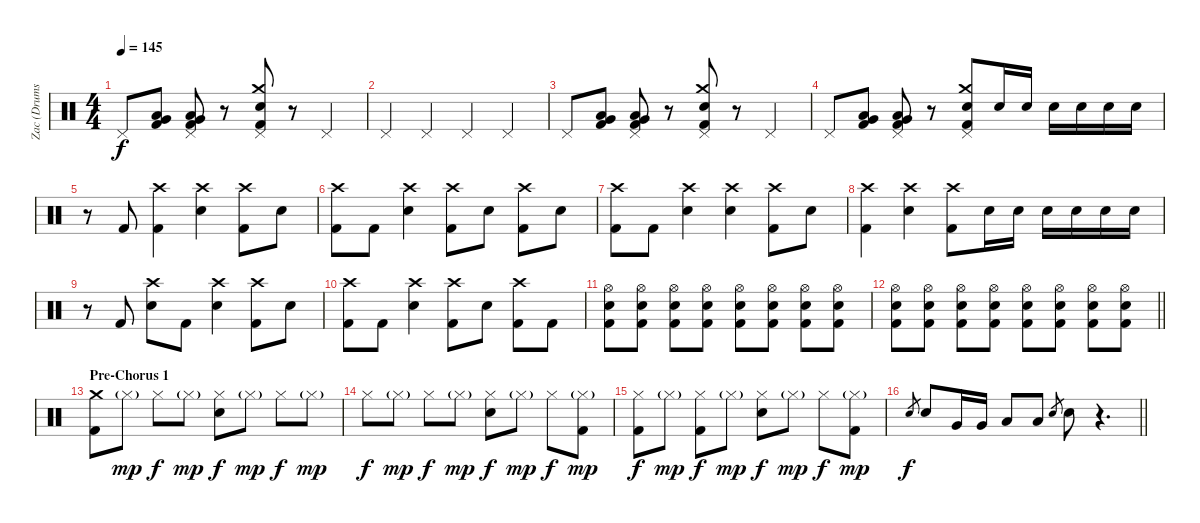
\track ("Zac (Drums)" "Zac (Drums") {instrument percussion}
\staff {score}
\articulation defaults
\ts (4 4)
\tempo 145
\clef neutral
\ks c "Pedal Hi-Hat (hit)".8{dy f}
("Very Low Tom (hit)" "Low Tom (hit)" "Kick (hit) 2").8 ("Pedal Hi-Hat (hit)" "Very Low Tom (hit)" "Low Tom (hit)" "Kick (hit) 2").8 r.8 ("Crash medium (hit)" "Pedal Hi-Hat (hit)" "Electric Snare (hit)" "Kick (hit) 2").8 r.8 "Pedal Hi-Hat (hit)".4 |
"Pedal Hi-Hat (hit)".4 "Pedal Hi-Hat (hit)".4 "Pedal Hi-Hat (hit)".4 "Pedal Hi-Hat (hit)".4 |
"Pedal Hi-Hat (hit)".8 ("Very Low Tom (hit)" "Low Tom (hit)" "Kick (hit) 2").8 ("Pedal Hi-Hat (hit)" "Very Low Tom (hit)" "Low Tom (hit)" "Kick (hit) 2").8 r.8 ("Crash medium (hit)" "Pedal Hi-Hat (hit)" "Electric Snare (hit)" "Kick (hit) 2").8 r.8 "Pedal Hi-Hat (hit)".4 |
"Pedal Hi-Hat (hit)".8 ("Very Low Tom (hit)" "Low Tom (hit)" "Kick (hit) 2").8 ("Pedal Hi-Hat (hit)" "Very Low Tom (hit)" "Low Tom (hit)" "Kick (hit) 2").8 r.8 ("Crash medium (hit)" "Pedal Hi-Hat (hit)" "Electric Snare (hit)" "Kick (hit) 2").8 "Electric Snare (hit)".16 "Electric Snare (hit)".16 "Electric Snare (hit)".16 "Electric Snare (hit)".16 "Electric Snare (hit)".16 "Electric Snare (hit)".16 |
r.8 "Kick (hit) 2".8 ("Crash high (hit)" "Kick (hit) 2").4 ("Crash high (hit)" "Electric Snare (hit)").4 ("Crash high (hit)" "Kick (hit) 2").8 "Electric Snare (hit)".8 |
("Crash high (hit)" "Kick (hit) 2").8 "Kick (hit) 2".8 ("Crash high (hit)" "Electric Snare (hit)").4 ("Crash high (hit)" "Kick (hit) 2").8 "Electric Snare (hit)".8 ("Crash high (hit)" "Kick (hit) 2").8 "Electric Snare (hit)".8 |
("Crash high (hit)" "Kick (hit) 2").8 "Kick (hit) 2".8 ("Crash high (hit)" "Electric Snare (hit)").4 ("Crash high (hit)" "Electric Snare (hit)").4 ("Crash high (hit)" "Kick (hit) 2").8 "Electric Snare (hit)".8 |
("Crash high (hit)" "Kick (hit) 2").4 ("Crash high (hit)" "Electric Snare (hit)").4 ("Crash high (hit)" "Kick (hit) 2").8 "Electric Snare (hit)".16 "Electric Snare (hit)".16 "Electric Snare (hit)".16 "Electric Snare (hit)".16 "Electric Snare (hit)".16 "Electric Snare (hit)".16 |
r.8 "Kick (hit) 2".8 ("Crash high (hit)" "Electric Snare (hit)").8 "Kick (hit) 2".8 ("Crash high (hit)" "Electric Snare (hit)").4 ("Crash high (hit)" "Kick (hit) 2").8 "Electric Snare (hit)".8 |
("Crash high (hit)" "Kick (hit) 2").8 "Kick (hit) 2".8 ("Crash high (hit)" "Electric Snare (hit)").4 ("Crash high (hit)" "Kick (hit) 2").8 "Electric Snare (hit)".8 ("Crash high (hit)" "Kick (hit) 2").8 "Kick (hit) 2".8 |
("Hi-Hat (open)" "Electric Snare (hit)" "Kick (hit) 2").8 ("Hi-Hat (open)" "Electric Snare (hit)" "Kick (hit) 2").8 ("Hi-Hat (open)" "Electric Snare (hit)" "Kick (hit) 2").8 ("Hi-Hat (open)" "Electric Snare (hit)" "Kick (hit) 2").8 ("Hi-Hat (open)" "Electric Snare (hit)" "Kick (hit) 2").8 ("Hi-Hat (open)" "Electric Snare (hit)" "Kick (hit) 2").8 ("Hi-Hat (open)" "Electric Snare (hit)" "Kick (hit) 2").8 ("Hi-Hat (open)" "Electric Snare (hit)" "Kick (hit) 2").8 |
\barLineRight lightlight
("Hi-Hat (open)" "Electric Snare (hit)" "Kick (hit) 2").8 ("Hi-Hat (open)" "Electric Snare (hit)" "Kick (hit) 2").8 ("Hi-Hat (open)" "Electric Snare (hit)" "Kick (hit) 2").8 ("Hi-Hat (open)" "Electric Snare (hit)" "Kick (hit) 2").8 ("Hi-Hat (open)" "Electric Snare (hit)" "Kick (hit) 2").8 ("Hi-Hat (open)" "Electric Snare (hit)" "Kick (hit) 2").8 ("Hi-Hat (open)" "Electric Snare (hit)" "Kick (hit) 2").8 ("Hi-Hat (open)" "Electric Snare (hit)" "Kick (hit) 2").8 |
\section ("" "Pre-Chorus 1")
("Crash medium (hit)" "Kick (hit) 2").8 "Hi-Hat (closed)"{g}.8{dy mp} "Hi-Hat (closed)".8{dy f} "Hi-Hat (closed)"{g}.8{dy mp} ("Hi-Hat (closed)" "Electric Snare (hit)").8{dy f} "Hi-Hat (closed)"{g}.8{dy mp} "Hi-Hat (closed)".8{dy f} "Hi-Hat (closed)"{g}.8{dy mp} |
"Hi-Hat (closed)".8{dy f} "Hi-Hat (closed)"{g}.8{dy mp} "Hi-Hat (closed)".8{dy f} "Hi-Hat (closed)"{g}.8{dy mp} ("Hi-Hat (closed)" "Electric Snare (hit)").8{dy f} "Hi-Hat (closed)"{g}.8{dy mp} "Hi-Hat (closed)".8{dy f} ("Hi-Hat (closed)"{g} "Kick (hit) 2").8{dy mp} |
("Hi-Hat (closed)" "Kick (hit) 2").8{dy f} "Hi-Hat (closed)"{g}.8{dy mp} ("Hi-Hat (closed)" "Kick (hit) 2").8{dy f} "Hi-Hat (closed)"{g}.8{dy mp} ("Hi-Hat (closed)" "Electric Snare (hit)").8{dy f} "Hi-Hat (closed)"{g}.8{dy mp} "Hi-Hat (closed)".8{dy f} ("Hi-Hat (closed)"{g} "Kick (hit) 2").8{dy mp} |
\barLineRight lightlight "Electric Snare (hit)".8{gr dy f} "Electric Snare (hit)".8 "Very Low Tom (hit)".16 "Very Low Tom (hit)".16 "Low Floor Tom (hit)".8 "Low Floor Tom (hit)".8 "Electric Snare (hit)".8{gr} "Electric Snare (hit)".8
r.4{d}
